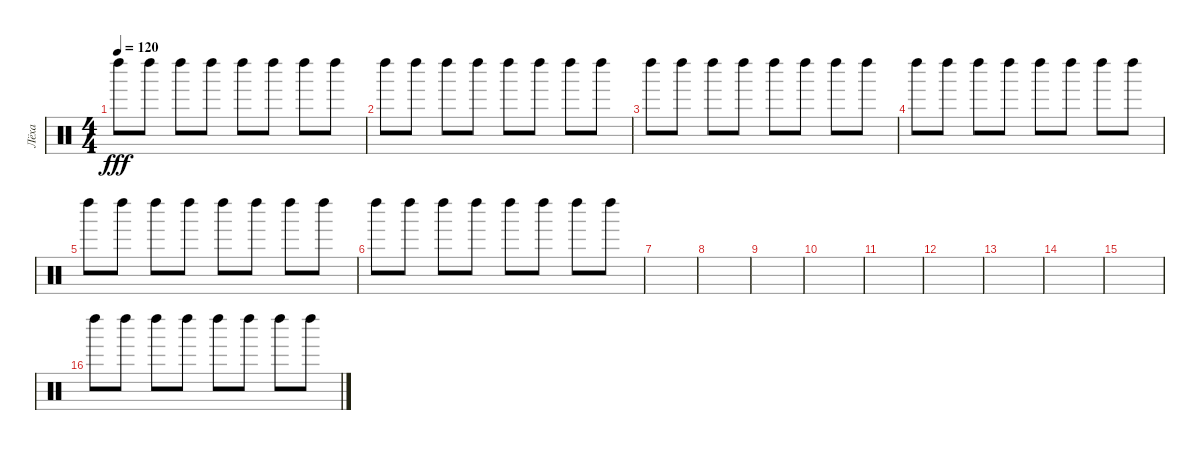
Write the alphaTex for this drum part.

\track ("Лёха" "Лёха") {instrument percussion}
\staff {score}
\articulation defaults
\ts (4 4)
\tempo 120
\clef neutral
\ks c "Left Maraca (hit)".8{dy fff} "Left Maraca (hit)".8 "Left Maraca (hit)".8 "Left Maraca (hit)".8 "Left Maraca (hit)".8 "Left Maraca (hit)".8 "Left Maraca (hit)".8 "Left Maraca (hit)".8
|
"Left Maraca (hit)".8 "Left Maraca (hit)".8 "Left Maraca (hit)".8 "Left Maraca (hit)".8 "Left Maraca (hit)".8 "Left Maraca (hit)".8 "Left Maraca (hit)".8 "Left Maraca (hit)".8 |
"Left Maraca (hit)".8 "Left Maraca (hit)".8 "Left Maraca (hit)".8 "Left Maraca (hit)".8 "Left Maraca (hit)".8 "Left Maraca (hit)".8 "Left Maraca (hit)".8 "Left Maraca (hit)".8 |
"Left Maraca (hit)".8 "Left Maraca (hit)".8 "Left Maraca (hit)".8 "Left Maraca (hit)".8 "Left Maraca (hit)".8 "Left Maraca (hit)".8 "Left Maraca (hit)".8 "Left Maraca (hit)".8 |
"Left Maraca (hit)".8 "Left Maraca (hit)".8 "Left Maraca (hit)".8 "Left Maraca (hit)".8 "Left Maraca (hit)".8 "Left Maraca (hit)".8 "Left Maraca (hit)".8 "Left Maraca (hit)".8 |
"Left Maraca (hit)".8 "Left Maraca (hit)".8 "Left Maraca (hit)".8 "Left Maraca (hit)".8 "Left Maraca (hit)".8 "Left Maraca (hit)".8 "Left Maraca (hit)".8 "Left Maraca (hit)".8 |
|
|
|
|
|
|
|
|
|
"Left Maraca (hit)".8 "Left Maraca (hit)".8 "Left Maraca (hit)".8 "Left Maraca (hit)".8 "Left Maraca (hit)".8 "Left Maraca (hit)".8 "Left Maraca (hit)".8 "Left Maraca (hit)".8
